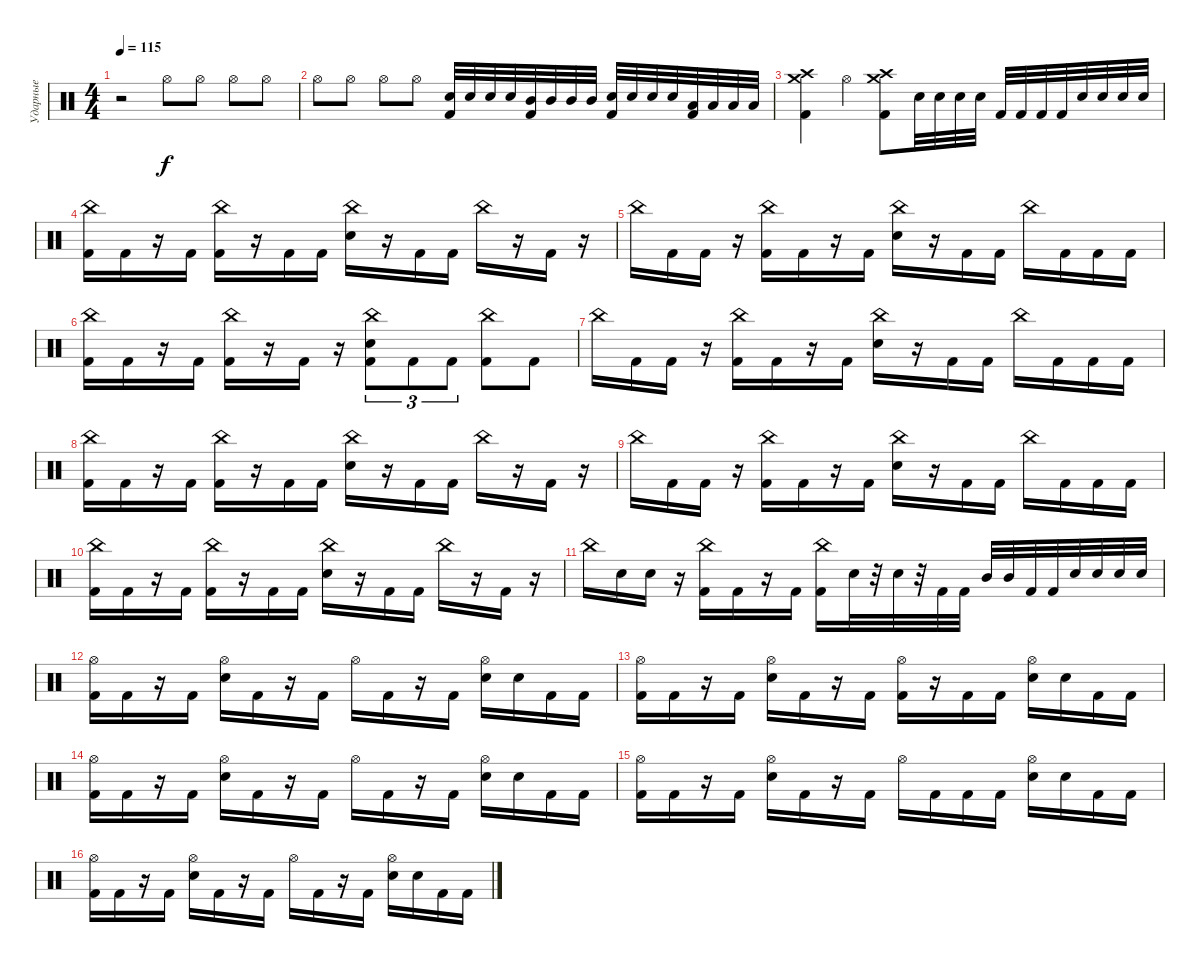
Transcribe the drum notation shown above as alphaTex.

\track ("Ударные" "Ударные") {instrument percussion}
\staff {score}
\articulation defaults
\ts (4 4)
\tempo 115
\clef neutral
\ks c
r.2{dy f} "Hi-Hat (open)".8 "Hi-Hat (open)".8 "Hi-Hat (open)".8 "Hi-Hat (open)".8 |
"Hi-Hat (open)".8 "Hi-Hat (open)".8 "Hi-Hat (open)".8 "Hi-Hat (open)".8 ("Electric Snare (hit)" "Kick (hit) 2").32 "Electric Snare (hit)".32 "Electric Snare (hit)".32 "Electric Snare (hit)".32 ("Mid Tom (hit)" "Kick (hit) 2").32 "Mid Tom (hit)".32 "Mid Tom (hit)".32 "Mid Tom (hit)".32 ("Electric Snare (hit)" "Kick (hit) 2").32 "Electric Snare (hit)".32 "Electric Snare (hit)".32 "Electric Snare (hit)".32 ("Low Tom (hit)" "Kick (hit) 2").32 "Low Tom (hit)".32 "Low Tom (hit)".32 "Low Tom (hit)".32 |
("Crash medium (hit)" "Crash high (hit)" "Kick (hit) 2").4 "Hi-Hat (open)".4 ("Crash medium (hit)" "Crash high (hit)" "Kick (hit) 2").8 "Electric Snare (hit)".32 "Electric Snare (hit)".32 "Electric Snare (hit)".32 "Electric Snare (hit)".32 "Kick (hit) 2".32 "Kick (hit) 2".32 "Kick (hit) 2".32 "Kick (hit) 2".32 "Electric Snare (hit)".32 "Electric Snare (hit)".32 "Electric Snare (hit)".32 "Electric Snare (hit)".32 |
("China (hit)" "Kick (hit) 2").16 "Kick (hit) 2".16 r.16 "Kick (hit) 2".16 ("China (hit)" "Kick (hit) 2").16 r.16 "Kick (hit) 2".16 "Kick (hit) 2".16 ("China (hit)" "Electric Snare (hit)").16 r.16 "Kick (hit) 2".16 "Kick (hit) 2".16 "China (hit)".16 r.16 "Kick (hit) 2".16 r.16 |
"China (hit)".16 "Kick (hit) 2".16 "Kick (hit) 2".16 r.16 ("China (hit)" "Kick (hit) 2").16 "Kick (hit) 2".16 r.16 "Kick (hit) 2".16 ("China (hit)" "Electric Snare (hit)").16 r.16 "Kick (hit) 2".16 "Kick (hit) 2".16 "China (hit)".16 "Kick (hit) 2".16 "Kick (hit) 2".16 "Kick (hit) 2".16 |
("China (hit)" "Kick (hit) 2").16 "Kick (hit) 2".16 r.16 "Kick (hit) 2".16 ("China (hit)" "Kick (hit) 2").16 r.16 "Kick (hit) 2".16 r.16 ("China (hit)" "Electric Snare (hit)" "Kick (hit) 2").8{tu (3 2)} "Kick (hit) 2".8{tu (3 2)} "Kick (hit) 2".8{tu (3 2)} ("China (hit)" "Kick (hit) 2").8 "Kick (hit) 2".8 |
"China (hit)".16 "Kick (hit) 2".16 "Kick (hit) 2".16 r.16 ("China (hit)" "Kick (hit) 2").16 "Kick (hit) 2".16 r.16 "Kick (hit) 2".16 ("China (hit)" "Electric Snare (hit)").16 r.16 "Kick (hit) 2".16 "Kick (hit) 2".16 "China (hit)".16 "Kick (hit) 2".16 "Kick (hit) 2".16 "Kick (hit) 2".16 |
("China (hit)" "Kick (hit) 2").16 "Kick (hit) 2".16 r.16 "Kick (hit) 2".16 ("China (hit)" "Kick (hit) 2").16 r.16 "Kick (hit) 2".16 "Kick (hit) 2".16 ("China (hit)" "Electric Snare (hit)").16 r.16 "Kick (hit) 2".16 "Kick (hit) 2".16 "China (hit)".16 r.16 "Kick (hit) 2".16 r.16 |
"China (hit)".16 "Kick (hit) 2".16 "Kick (hit) 2".16 r.16 ("China (hit)" "Kick (hit) 2").16 "Kick (hit) 2".16 r.16 "Kick (hit) 2".16 ("China (hit)" "Electric Snare (hit)").16 r.16 "Kick (hit) 2".16 "Kick (hit) 2".16 "China (hit)".16 "Kick (hit) 2".16 "Kick (hit) 2".16 "Kick (hit) 2".16 |
("China (hit)" "Kick (hit) 2").16 "Kick (hit) 2".16 r.16 "Kick (hit) 2".16 ("China (hit)" "Kick (hit) 2").16 r.16 "Kick (hit) 2".16 "Kick (hit) 2".16 ("China (hit)" "Electric Snare (hit)").16 r.16 "Kick (hit) 2".16 "Kick (hit) 2".16 "China (hit)".16 r.16 "Kick (hit) 2".16 r.16 |
"China (hit)".16 "Electric Snare (hit)".16 "Electric Snare (hit)".16 r.16 ("China (hit)" "Kick (hit) 2").16 "Kick (hit) 2".16 r.16 "Kick (hit) 2".16 ("China (hit)" "Kick (hit) 2").16 "Electric Snare (hit)".32 r.32 "Electric Snare (hit)".32 r.32 "Kick (hit) 2".32 "Kick (hit) 2".32 "Mid Tom (hit)".32 "Mid Tom (hit)".32 "Kick (hit) 2".32 "Kick (hit) 2".32 "Electric Snare (hit)".32 "Electric Snare (hit)".32 "Electric Snare (hit)".32 "Electric Snare (hit)".32 |
("Hi-Hat (open)" "Kick (hit) 2").16 "Kick (hit) 2".16 r.16 "Kick (hit) 2".16 ("Hi-Hat (open)" "Electric Snare (hit)").16 "Kick (hit) 2".16 r.16 "Kick (hit) 2".16 "Hi-Hat (open)".16 "Kick (hit) 2".16 r.16 "Kick (hit) 2".16 ("Hi-Hat (open)" "Electric Snare (hit)").16 "Electric Snare (hit)".16 "Kick (hit) 2".16 "Kick (hit) 2".16 |
("Hi-Hat (open)" "Kick (hit) 2").16 "Kick (hit) 2".16 r.16 "Kick (hit) 2".16 ("Hi-Hat (open)" "Electric Snare (hit)").16 "Kick (hit) 2".16 r.16 "Kick (hit) 2".16 ("Hi-Hat (open)" "Kick (hit) 2").16 r.16 "Kick (hit) 2".16 "Kick (hit) 2".16 ("Hi-Hat (open)" "Electric Snare (hit)").16 "Electric Snare (hit)".16 "Kick (hit) 2".16 "Kick (hit) 2".16 |
("Hi-Hat (open)" "Kick (hit) 2").16 "Kick (hit) 2".16 r.16 "Kick (hit) 2".16 ("Hi-Hat (open)" "Electric Snare (hit)").16 "Kick (hit) 2".16 r.16 "Kick (hit) 2".16 "Hi-Hat (open)".16 "Kick (hit) 2".16 r.16 "Kick (hit) 2".16 ("Hi-Hat (open)" "Electric Snare (hit)").16 "Electric Snare (hit)".16 "Kick (hit) 2".16 "Kick (hit) 2".16 |
("Hi-Hat (open)" "Kick (hit) 2").16 "Kick (hit) 2".16 r.16 "Kick (hit) 2".16 ("Hi-Hat (open)" "Electric Snare (hit)").16 "Kick (hit) 2".16 r.16 "Kick (hit) 2".16 "Hi-Hat (open)".16 "Kick (hit) 2".16 "Kick (hit) 2".16 "Kick (hit) 2".16 ("Hi-Hat (open)" "Electric Snare (hit)").16 "Electric Snare (hit)".16 "Kick (hit) 2".16 "Kick (hit) 2".16 |
("Hi-Hat (open)" "Kick (hit) 2").16 "Kick (hit) 2".16 r.16 "Kick (hit) 2".16 ("Hi-Hat (open)" "Electric Snare (hit)").16 "Kick (hit) 2".16 r.16 "Kick (hit) 2".16 "Hi-Hat (open)".16 "Kick (hit) 2".16 r.16 "Kick (hit) 2".16 ("Hi-Hat (open)" "Electric Snare (hit)").16 "Electric Snare (hit)".16 "Kick (hit) 2".16 "Kick (hit) 2".16
